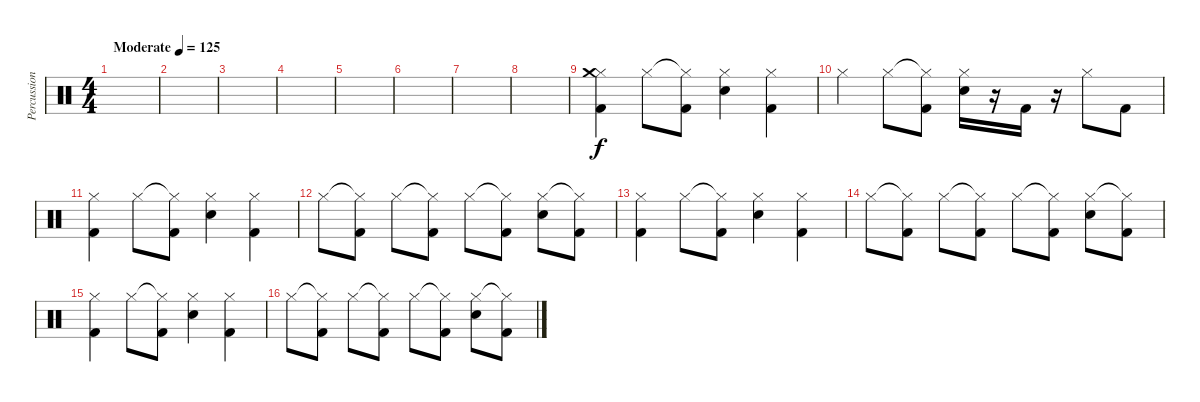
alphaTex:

\track ("Percussion" "Percussion") {instrument percussion}
\staff {score}
\articulation defaults
\ts (4 4)
\tempo (125 "Moderate")
\clef neutral
\ks c
|
|
|
|
|
|
|
|
("Hi-Hat (closed)" "Crash medium (hit)" "Kick (hit) 2").4 "Hi-Hat (closed)".8{dy f} ("Hi-Hat (closed)"{t} "Kick (hit) 2").8 ("Hi-Hat (closed)" "Electric Snare (hit)").4 ("Hi-Hat (closed)" "Kick (hit) 2").4 |
"Hi-Hat (closed)".4 "Hi-Hat (closed)".8 ("Hi-Hat (closed)"{t} "Kick (hit) 2").8 ("Hi-Hat (closed)" "Electric Snare (hit)").16 r.16 "Kick (hit) 2".16 r.16 "Hi-Hat (closed)".8 "Kick (hit) 2".8 |
("Hi-Hat (closed)" "Kick (hit) 2").4 "Hi-Hat (closed)".8 ("Hi-Hat (closed)"{t} "Kick (hit) 2").8 ("Hi-Hat (closed)" "Electric Snare (hit)").4 ("Hi-Hat (closed)" "Kick (hit) 2").4 |
"Hi-Hat (closed)".8 ("Hi-Hat (closed)"{t} "Kick (hit) 2").8 "Hi-Hat (closed)".8 ("Hi-Hat (closed)"{t} "Kick (hit) 2").8 "Hi-Hat (closed)".8 ("Hi-Hat (closed)"{t} "Kick (hit) 2").8 ("Hi-Hat (closed)" "Electric Snare (hit)").8 ("Hi-Hat (closed)"{t} "Kick (hit) 2").8 |
("Hi-Hat (closed)" "Kick (hit) 2").4 "Hi-Hat (closed)".8 ("Hi-Hat (closed)"{t} "Kick (hit) 2").8 ("Hi-Hat (closed)" "Electric Snare (hit)").4 ("Hi-Hat (closed)" "Kick (hit) 2").4 |
"Hi-Hat (closed)".8 ("Hi-Hat (closed)"{t} "Kick (hit) 2").8 "Hi-Hat (closed)".8 ("Hi-Hat (closed)"{t} "Kick (hit) 2").8 "Hi-Hat (closed)".8 ("Hi-Hat (closed)"{t} "Kick (hit) 2").8 ("Hi-Hat (closed)" "Electric Snare (hit)").8 ("Hi-Hat (closed)"{t} "Kick (hit) 2").8 |
("Hi-Hat (closed)" "Kick (hit) 2").4 "Hi-Hat (closed)".8 ("Hi-Hat (closed)"{t} "Kick (hit) 2").8 ("Hi-Hat (closed)" "Electric Snare (hit)").4 ("Hi-Hat (closed)" "Kick (hit) 2").4 |
"Hi-Hat (closed)".8 ("Hi-Hat (closed)"{t} "Kick (hit) 2").8 "Hi-Hat (closed)".8 ("Hi-Hat (closed)"{t} "Kick (hit) 2").8 "Hi-Hat (closed)".8 ("Hi-Hat (closed)"{t} "Kick (hit) 2").8 ("Hi-Hat (closed)" "Electric Snare (hit)").8 ("Hi-Hat (closed)"{t} "Kick (hit) 2").8
